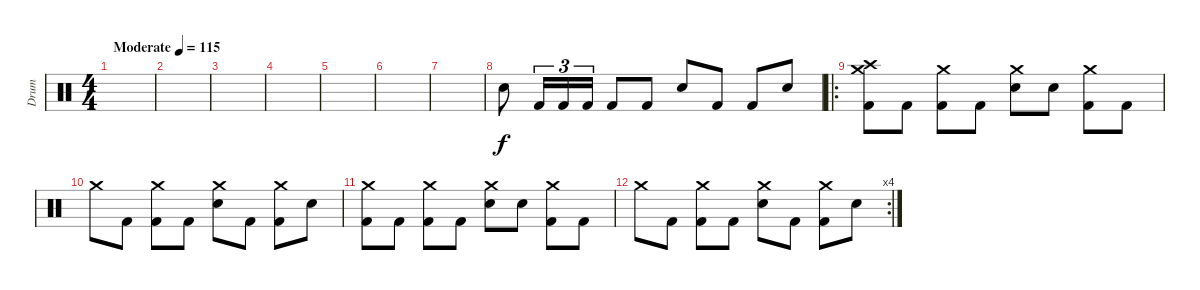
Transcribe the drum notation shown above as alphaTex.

\track ("Drum" "Drum") {instrument percussion}
\staff {score}
\articulation defaults
\ts (4 4)
\tempo (115 "Moderate")
\clef neutral
\ks c
|
|
|
|
|
|
|
"Electric Snare (hit)".8 "Kick (hit) 2".16{tu (3 2)} "Kick (hit) 2".16{tu (3 2)} "Kick (hit) 2".16{tu (3 2)} "Kick (hit) 2".8 "Kick (hit) 2".8 "Electric Snare (hit)".8 "Kick (hit) 2".8 "Kick (hit) 2".8 "Electric Snare (hit)".8 |
\ro
("Crash high (hit)" "Crash medium (hit)" "Kick (hit) 2").8 "Kick (hit) 2".8 ("Crash medium (hit)" "Kick (hit) 2").8 "Kick (hit) 2".8 ("Crash medium (hit)" "Electric Snare (hit)").8 "Electric Snare (hit)".8 ("Crash medium (hit)" "Kick (hit) 2").8 "Kick (hit) 2".8 |
"Crash medium (hit)".8 "Kick (hit) 2".8 ("Crash medium (hit)" "Kick (hit) 2").8 "Kick (hit) 2".8 ("Crash medium (hit)" "Electric Snare (hit)").8 "Kick (hit) 2".8 ("Crash medium (hit)" "Kick (hit) 2").8 "Electric Snare (hit)".8 |
("Crash medium (hit)" "Kick (hit) 2").8 "Kick (hit) 2".8 ("Crash medium (hit)" "Kick (hit) 2").8 "Kick (hit) 2".8 ("Crash medium (hit)" "Electric Snare (hit)").8 "Electric Snare (hit)".8 ("Crash medium (hit)" "Kick (hit) 2").8 "Kick (hit) 2".8 |
\rc 4 "Crash medium (hit)".8 "Kick (hit) 2".8
("Crash medium (hit)" "Kick (hit) 2").8 "Kick (hit) 2".8 ("Crash medium (hit)" "Electric Snare (hit)").8 "Kick (hit) 2".8 ("Crash medium (hit)" "Kick (hit) 2").8 "Electric Snare (hit)".8
